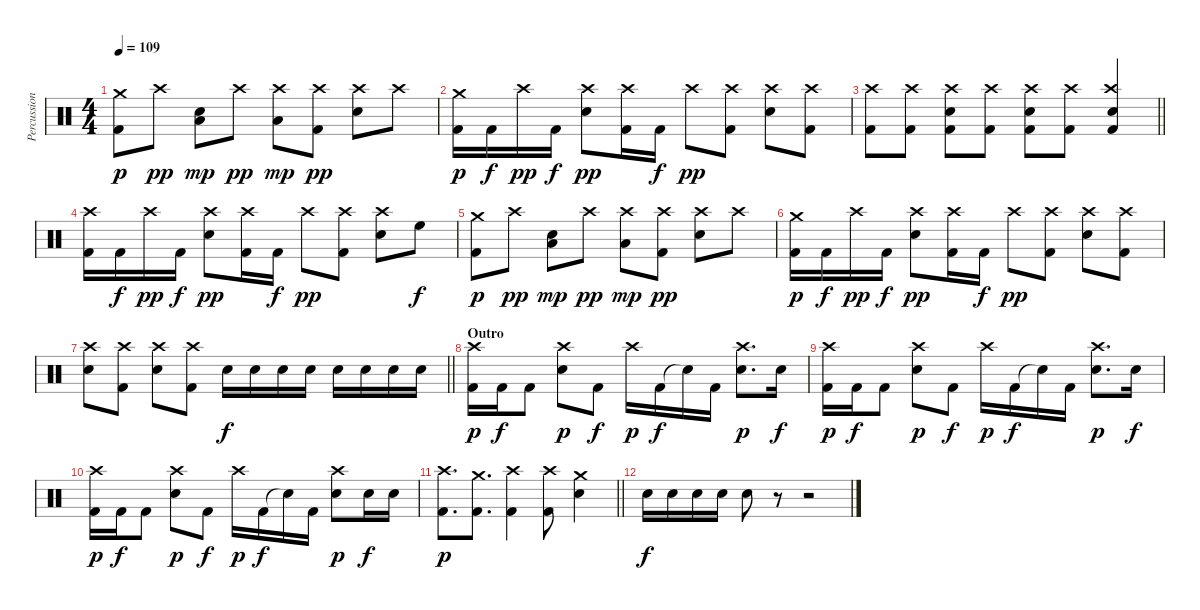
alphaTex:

\track ("Percussions" "Percussion") {instrument percussion}
\staff {score}
\articulation defaults
\ts (4 4)
\tempo 109
\clef neutral
\ks c
("Crash medium (hit)" "Kick (hit) 2").8{dy p} "Crash high (hit)".8{dy pp} ("Low Floor Tom (hit)" "Electric Snare (hit)").8{dy mp} "Crash high (hit)".8{dy pp} ("Crash high (hit)" "Low Floor Tom (hit)").8{dy mp} ("Crash high (hit)" "Kick (hit) 2").8{dy pp} ("Crash high (hit)" "Electric Snare (hit)").8 "Crash high (hit)".8 |
("Crash medium (hit)" "Kick (hit) 2").16{dy p} "Kick (hit) 2".16{dy f} "Crash high (hit)".16{dy pp} "Kick (hit) 2".16{dy f} ("Crash high (hit)" "Electric Snare (hit)").8{dy pp} ("Crash high (hit)" "Kick (hit) 2").16 "Kick (hit) 2".16{dy f} "Crash high (hit)".8{dy pp} ("Crash high (hit)" "Kick (hit) 2").8 ("Crash high (hit)" "Electric Snare (hit)").8 ("Crash high (hit)" "Kick (hit) 2").8 |
\barLineRight lightlight
("Crash high (hit)" "Kick (hit) 2").8 ("Crash high (hit)" "Kick (hit) 2").8 ("Crash high (hit)" "Electric Snare (hit)" "Kick (hit) 2").8 ("Crash high (hit)" "Kick (hit) 2").8 ("Crash high (hit)" "Electric Snare (hit)" "Kick (hit) 2").8 ("Crash high (hit)" "Kick (hit) 2").8 ("Crash high (hit)" "Electric Snare (hit)" "Kick (hit) 2").4 |
("Crash high (hit)" "Kick (hit) 2").16 "Kick (hit) 2".16{dy f} "Crash high (hit)".16{dy pp} "Kick (hit) 2".16{dy f} ("Crash high (hit)" "Electric Snare (hit)").8{dy pp} ("Crash high (hit)" "Kick (hit) 2").16 "Kick (hit) 2".16{dy f} "Crash high (hit)".8{dy pp} ("Crash high (hit)" "Kick (hit) 2").8 ("Crash high (hit)" "Electric Snare (hit)").8 "High Floor Tom (hit)".8{dy f} |
("Crash medium (hit)" "Kick (hit) 2").8{dy p} "Crash high (hit)".8{dy pp} ("Low Floor Tom (hit)" "Electric Snare (hit)").8{dy mp} "Crash high (hit)".8{dy pp} ("Crash high (hit)" "Low Floor Tom (hit)").8{dy mp} ("Crash high (hit)" "Kick (hit) 2").8{dy pp} ("Crash high (hit)" "Electric Snare (hit)").8 "Crash high (hit)".8 |
("Crash medium (hit)" "Kick (hit) 2").16{dy p} "Kick (hit) 2".16{dy f} "Crash high (hit)".16{dy pp} "Kick (hit) 2".16{dy f} ("Crash high (hit)" "Electric Snare (hit)").8{dy pp} ("Crash high (hit)" "Kick (hit) 2").16 "Kick (hit) 2".16{dy f} "Crash high (hit)".8{dy pp} ("Crash high (hit)" "Kick (hit) 2").8 ("Crash high (hit)" "Electric Snare (hit)").8 ("Crash high (hit)" "Kick (hit) 2").8 |
\barLineRight lightlight
("Crash high (hit)" "Electric Snare (hit)").8 ("Crash high (hit)" "Kick (hit) 2").8 ("Crash high (hit)" "Electric Snare (hit)").8 ("Crash high (hit)" "Kick (hit) 2").8 "Electric Snare (hit)".16{dy f} "Electric Snare (hit)".16 "Electric Snare (hit)".16 "Electric Snare (hit)".16 "Electric Snare (hit)".16 "Electric Snare (hit)".16 "Electric Snare (hit)".16 "Electric Snare (hit)".16 |
\section ("" "Outro")
("Crash high (hit)" "Kick (hit) 2").16{dy p} "Kick (hit) 2".16{dy f} "Kick (hit) 2".8 ("Crash high (hit)" "Electric Snare (hit)").8{dy p} "Kick (hit) 2".8{dy f} "Crash high (hit)".16{dy p} "Kick (hit) 2".16{dy f} "Snare (hit)"{t}.16 "Kick (hit) 2".16 ("Crash high (hit)" "Electric Snare (hit)").8{d dy p} "Electric Snare (hit)".16{dy f} |
("Crash high (hit)" "Kick (hit) 2").16{dy p} "Kick (hit) 2".16{dy f} "Kick (hit) 2".8 ("Crash high (hit)" "Electric Snare (hit)").8{dy p} "Kick (hit) 2".8{dy f} "Crash high (hit)".16{dy p} "Kick (hit) 2".16{dy f} "Snare (hit)"{t}.16 "Kick (hit) 2".16 ("Crash high (hit)" "Electric Snare (hit)").8{d dy p} "Electric Snare (hit)".16{dy f} |
("Crash high (hit)" "Kick (hit) 2").16{dy p} "Kick (hit) 2".16{dy f} "Kick (hit) 2".8 ("Crash high (hit)" "Electric Snare (hit)").8{dy p} "Kick (hit) 2".8{dy f} "Crash high (hit)".16{dy p} "Kick (hit) 2".16{dy f} "Snare (hit)"{t}.16 "Kick (hit) 2".16 ("Crash high (hit)" "Electric Snare (hit)").8{dy p} "Electric Snare (hit)".16{dy f} "Electric Snare (hit)".16 |
\barLineRight lightlight
("Crash high (hit)" "Kick (hit) 2").8{d dy p} ("Crash medium (hit)" "Kick (hit) 2").8{d} ("Crash high (hit)" "Kick (hit) 2").4 ("Crash high (hit)" "Kick (hit) 2").8 ("Crash medium (hit)" "Electric Snare (hit)").4 |
"Electric Snare (hit)".16{dy f} "Electric Snare (hit)".16 "Electric Snare (hit)".16 "Electric Snare (hit)".16 "Electric Snare (hit)".8 r.8 r.2
